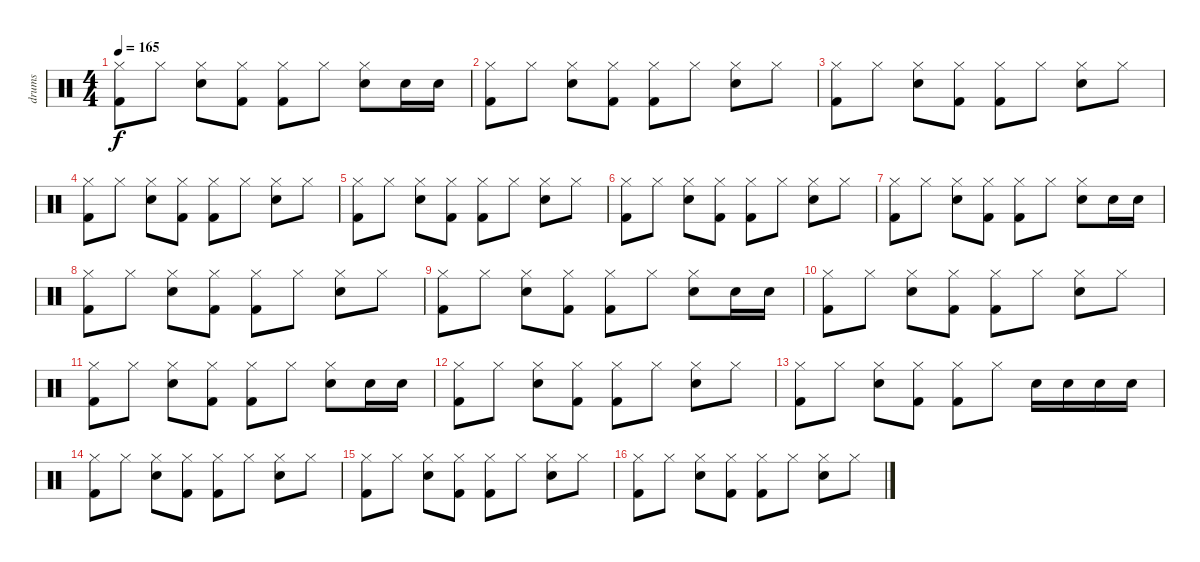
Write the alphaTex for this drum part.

\track ("drums" "drums") {instrument percussion}
\staff {score}
\articulation defaults
\ts (4 4)
\tempo 165
\clef neutral
\ks c
("Hi-Hat (closed)" "Kick (hit) 2").8{dy f} "Hi-Hat (closed)".8 ("Snare (hit) 2" "Hi-Hat (closed)").8 ("Hi-Hat (closed)" "Kick (hit) 2").8 ("Hi-Hat (closed)" "Kick (hit) 2").8 "Hi-Hat (closed)".8 ("Snare (hit) 2" "Hi-Hat (closed)").8 "Snare (hit) 2".16 "Snare (hit) 2".16 |
("Hi-Hat (closed)" "Kick (hit) 2").8 "Hi-Hat (closed)".8 ("Snare (hit) 2" "Hi-Hat (closed)").8 ("Hi-Hat (closed)" "Kick (hit) 2").8 ("Hi-Hat (closed)" "Kick (hit) 2").8 "Hi-Hat (closed)".8 ("Snare (hit) 2" "Hi-Hat (closed)").8 "Hi-Hat (closed)".8 |
("Hi-Hat (closed)" "Kick (hit) 2").8 "Hi-Hat (closed)".8 ("Snare (hit) 2" "Hi-Hat (closed)").8 ("Hi-Hat (closed)" "Kick (hit) 2").8 ("Hi-Hat (closed)" "Kick (hit) 2").8 "Hi-Hat (closed)".8 ("Snare (hit) 2" "Hi-Hat (closed)").8 "Hi-Hat (closed)".8 |
("Hi-Hat (closed)" "Kick (hit) 2").8 "Hi-Hat (closed)".8 ("Snare (hit) 2" "Hi-Hat (closed)").8 ("Hi-Hat (closed)" "Kick (hit) 2").8 ("Hi-Hat (closed)" "Kick (hit) 2").8 "Hi-Hat (closed)".8 ("Snare (hit) 2" "Hi-Hat (closed)").8 "Hi-Hat (closed)".8 |
("Hi-Hat (closed)" "Kick (hit) 2").8 "Hi-Hat (closed)".8 ("Snare (hit) 2" "Hi-Hat (closed)").8 ("Hi-Hat (closed)" "Kick (hit) 2").8 ("Hi-Hat (closed)" "Kick (hit) 2").8 "Hi-Hat (closed)".8 ("Snare (hit) 2" "Hi-Hat (closed)").8 "Hi-Hat (closed)".8 |
("Hi-Hat (closed)" "Kick (hit) 2").8 "Hi-Hat (closed)".8 ("Snare (hit) 2" "Hi-Hat (closed)").8 ("Hi-Hat (closed)" "Kick (hit) 2").8 ("Hi-Hat (closed)" "Kick (hit) 2").8 "Hi-Hat (closed)".8 ("Snare (hit) 2" "Hi-Hat (closed)").8 "Hi-Hat (closed)".8 |
("Hi-Hat (closed)" "Kick (hit) 2").8 "Hi-Hat (closed)".8 ("Snare (hit) 2" "Hi-Hat (closed)").8 ("Hi-Hat (closed)" "Kick (hit) 2").8 ("Hi-Hat (closed)" "Kick (hit) 2").8 "Hi-Hat (closed)".8 ("Snare (hit) 2" "Hi-Hat (closed)").8 "Snare (hit) 2".16 "Snare (hit) 2".16 |
("Hi-Hat (closed)" "Kick (hit) 2").8 "Hi-Hat (closed)".8 ("Snare (hit) 2" "Hi-Hat (closed)").8 ("Hi-Hat (closed)" "Kick (hit) 2").8 ("Hi-Hat (closed)" "Kick (hit) 2").8 "Hi-Hat (closed)".8 ("Snare (hit) 2" "Hi-Hat (closed)").8 "Hi-Hat (closed)".8 |
("Hi-Hat (closed)" "Kick (hit) 2").8 "Hi-Hat (closed)".8 ("Snare (hit) 2" "Hi-Hat (closed)").8 ("Hi-Hat (closed)" "Kick (hit) 2").8 ("Hi-Hat (closed)" "Kick (hit) 2").8 "Hi-Hat (closed)".8 ("Snare (hit) 2" "Hi-Hat (closed)").8 "Snare (hit) 2".16 "Snare (hit) 2".16 |
("Hi-Hat (closed)" "Kick (hit) 2").8 "Hi-Hat (closed)".8 ("Snare (hit) 2" "Hi-Hat (closed)").8 ("Hi-Hat (closed)" "Kick (hit) 2").8 ("Hi-Hat (closed)" "Kick (hit) 2").8 "Hi-Hat (closed)".8 ("Snare (hit) 2" "Hi-Hat (closed)").8 "Hi-Hat (closed)".8 |
("Hi-Hat (closed)" "Kick (hit) 2").8 "Hi-Hat (closed)".8 ("Snare (hit) 2" "Hi-Hat (closed)").8 ("Hi-Hat (closed)" "Kick (hit) 2").8 ("Hi-Hat (closed)" "Kick (hit) 2").8 "Hi-Hat (closed)".8 ("Snare (hit) 2" "Hi-Hat (closed)").8 "Snare (hit) 2".16 "Snare (hit) 2".16 |
("Hi-Hat (closed)" "Kick (hit) 2").8 "Hi-Hat (closed)".8 ("Snare (hit) 2" "Hi-Hat (closed)").8 ("Hi-Hat (closed)" "Kick (hit) 2").8 ("Hi-Hat (closed)" "Kick (hit) 2").8 "Hi-Hat (closed)".8 ("Snare (hit) 2" "Hi-Hat (closed)").8 "Hi-Hat (closed)".8 |
("Hi-Hat (closed)" "Kick (hit) 2").8 "Hi-Hat (closed)".8 ("Snare (hit) 2" "Hi-Hat (closed)").8 ("Hi-Hat (closed)" "Kick (hit) 2").8 ("Hi-Hat (closed)" "Kick (hit) 2").8 "Hi-Hat (closed)".8 "Snare (hit) 2".16 "Snare (hit) 2".16 "Snare (hit) 2".16 "Snare (hit) 2".16 |
("Hi-Hat (closed)" "Kick (hit) 2").8 "Hi-Hat (closed)".8 ("Snare (hit) 2" "Hi-Hat (closed)").8 ("Hi-Hat (closed)" "Kick (hit) 2").8 ("Hi-Hat (closed)" "Kick (hit) 2").8 "Hi-Hat (closed)".8 ("Snare (hit) 2" "Hi-Hat (closed)").8 "Hi-Hat (closed)".8 |
("Hi-Hat (closed)" "Kick (hit) 2").8 "Hi-Hat (closed)".8 ("Snare (hit) 2" "Hi-Hat (closed)").8 ("Hi-Hat (closed)" "Kick (hit) 2").8 ("Hi-Hat (closed)" "Kick (hit) 2").8 "Hi-Hat (closed)".8 ("Snare (hit) 2" "Hi-Hat (closed)").8 "Hi-Hat (closed)".8 |
("Hi-Hat (closed)" "Kick (hit) 2").8 "Hi-Hat (closed)".8 ("Snare (hit) 2" "Hi-Hat (closed)").8 ("Hi-Hat (closed)" "Kick (hit) 2").8 ("Hi-Hat (closed)" "Kick (hit) 2").8 "Hi-Hat (closed)".8 ("Snare (hit) 2" "Hi-Hat (closed)").8 "Hi-Hat (closed)".8
